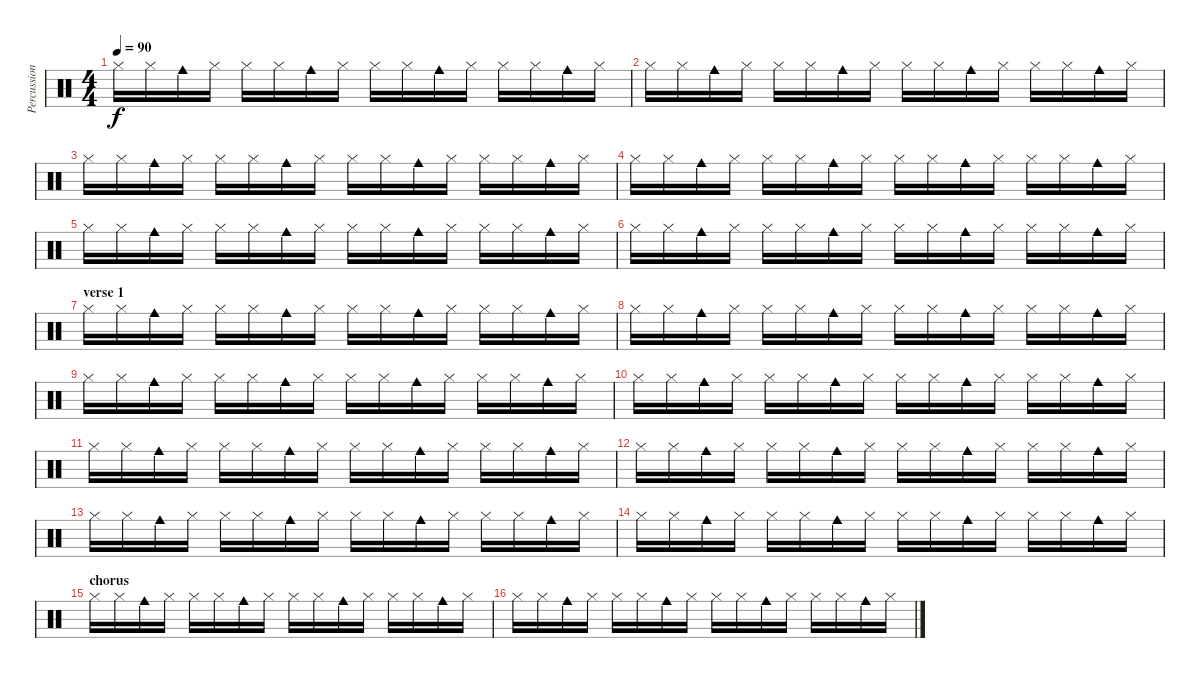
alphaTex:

\track ("Percussion" "Percussion") {instrument percussion}
\staff {score}
\articulation defaults
\ts (4 4)
\tempo 90
\clef neutral
\ks c "Hi-Hat (closed)".16{dy f} "Hi-Hat (closed)".16 "Cowbell medium (hit)".16 "Hi-Hat (closed)".16 "Hi-Hat (closed)".16 "Hi-Hat (closed)".16 "Cowbell medium (hit)".16 "Hi-Hat (closed)".16 "Hi-Hat (closed)".16 "Hi-Hat (closed)".16 "Cowbell medium (hit)".16 "Hi-Hat (closed)".16 "Hi-Hat (closed)".16 "Hi-Hat (closed)".16 "Cowbell medium (hit)".16 "Hi-Hat (closed)".16
|
"Hi-Hat (closed)".16 "Hi-Hat (closed)".16 "Cowbell medium (hit)".16 "Hi-Hat (closed)".16 "Hi-Hat (closed)".16 "Hi-Hat (closed)".16 "Cowbell medium (hit)".16 "Hi-Hat (closed)".16 "Hi-Hat (closed)".16 "Hi-Hat (closed)".16 "Cowbell medium (hit)".16 "Hi-Hat (closed)".16 "Hi-Hat (closed)".16 "Hi-Hat (closed)".16 "Cowbell medium (hit)".16 "Hi-Hat (closed)".16 |
"Hi-Hat (closed)".16 "Hi-Hat (closed)".16 "Cowbell medium (hit)".16 "Hi-Hat (closed)".16 "Hi-Hat (closed)".16 "Hi-Hat (closed)".16 "Cowbell medium (hit)".16 "Hi-Hat (closed)".16 "Hi-Hat (closed)".16 "Hi-Hat (closed)".16 "Cowbell medium (hit)".16 "Hi-Hat (closed)".16 "Hi-Hat (closed)".16 "Hi-Hat (closed)".16 "Cowbell medium (hit)".16 "Hi-Hat (closed)".16 |
"Hi-Hat (closed)".16 "Hi-Hat (closed)".16 "Cowbell medium (hit)".16 "Hi-Hat (closed)".16 "Hi-Hat (closed)".16 "Hi-Hat (closed)".16 "Cowbell medium (hit)".16 "Hi-Hat (closed)".16 "Hi-Hat (closed)".16 "Hi-Hat (closed)".16 "Cowbell medium (hit)".16 "Hi-Hat (closed)".16 "Hi-Hat (closed)".16 "Hi-Hat (closed)".16 "Cowbell medium (hit)".16 "Hi-Hat (closed)".16 |
"Hi-Hat (closed)".16 "Hi-Hat (closed)".16 "Cowbell medium (hit)".16 "Hi-Hat (closed)".16 "Hi-Hat (closed)".16 "Hi-Hat (closed)".16 "Cowbell medium (hit)".16 "Hi-Hat (closed)".16 "Hi-Hat (closed)".16 "Hi-Hat (closed)".16 "Cowbell medium (hit)".16 "Hi-Hat (closed)".16 "Hi-Hat (closed)".16 "Hi-Hat (closed)".16 "Cowbell medium (hit)".16 "Hi-Hat (closed)".16 |
"Hi-Hat (closed)".16 "Hi-Hat (closed)".16 "Cowbell medium (hit)".16 "Hi-Hat (closed)".16 "Hi-Hat (closed)".16 "Hi-Hat (closed)".16 "Cowbell medium (hit)".16 "Hi-Hat (closed)".16 "Hi-Hat (closed)".16 "Hi-Hat (closed)".16 "Cowbell medium (hit)".16 "Hi-Hat (closed)".16 "Hi-Hat (closed)".16 "Hi-Hat (closed)".16 "Cowbell medium (hit)".16 "Hi-Hat (closed)".16 |
\section ("" "verse 1")
"Hi-Hat (closed)".16 "Hi-Hat (closed)".16 "Cowbell medium (hit)".16 "Hi-Hat (closed)".16 "Hi-Hat (closed)".16 "Hi-Hat (closed)".16 "Cowbell medium (hit)".16 "Hi-Hat (closed)".16 "Hi-Hat (closed)".16 "Hi-Hat (closed)".16 "Cowbell medium (hit)".16 "Hi-Hat (closed)".16 "Hi-Hat (closed)".16 "Hi-Hat (closed)".16 "Cowbell medium (hit)".16 "Hi-Hat (closed)".16 |
"Hi-Hat (closed)".16 "Hi-Hat (closed)".16 "Cowbell medium (hit)".16 "Hi-Hat (closed)".16 "Hi-Hat (closed)".16 "Hi-Hat (closed)".16 "Cowbell medium (hit)".16 "Hi-Hat (closed)".16 "Hi-Hat (closed)".16 "Hi-Hat (closed)".16 "Cowbell medium (hit)".16 "Hi-Hat (closed)".16 "Hi-Hat (closed)".16 "Hi-Hat (closed)".16 "Cowbell medium (hit)".16 "Hi-Hat (closed)".16 |
"Hi-Hat (closed)".16 "Hi-Hat (closed)".16 "Cowbell medium (hit)".16 "Hi-Hat (closed)".16 "Hi-Hat (closed)".16 "Hi-Hat (closed)".16 "Cowbell medium (hit)".16 "Hi-Hat (closed)".16 "Hi-Hat (closed)".16 "Hi-Hat (closed)".16 "Cowbell medium (hit)".16 "Hi-Hat (closed)".16 "Hi-Hat (closed)".16 "Hi-Hat (closed)".16 "Cowbell medium (hit)".16 "Hi-Hat (closed)".16 |
"Hi-Hat (closed)".16 "Hi-Hat (closed)".16 "Cowbell medium (hit)".16 "Hi-Hat (closed)".16 "Hi-Hat (closed)".16 "Hi-Hat (closed)".16 "Cowbell medium (hit)".16 "Hi-Hat (closed)".16 "Hi-Hat (closed)".16 "Hi-Hat (closed)".16 "Cowbell medium (hit)".16 "Hi-Hat (closed)".16 "Hi-Hat (closed)".16 "Hi-Hat (closed)".16 "Cowbell medium (hit)".16 "Hi-Hat (closed)".16 |
"Hi-Hat (closed)".16 "Hi-Hat (closed)".16 "Cowbell medium (hit)".16 "Hi-Hat (closed)".16 "Hi-Hat (closed)".16 "Hi-Hat (closed)".16 "Cowbell medium (hit)".16 "Hi-Hat (closed)".16 "Hi-Hat (closed)".16 "Hi-Hat (closed)".16 "Cowbell medium (hit)".16 "Hi-Hat (closed)".16 "Hi-Hat (closed)".16 "Hi-Hat (closed)".16 "Cowbell medium (hit)".16 "Hi-Hat (closed)".16 |
"Hi-Hat (closed)".16 "Hi-Hat (closed)".16 "Cowbell medium (hit)".16 "Hi-Hat (closed)".16 "Hi-Hat (closed)".16 "Hi-Hat (closed)".16 "Cowbell medium (hit)".16 "Hi-Hat (closed)".16 "Hi-Hat (closed)".16 "Hi-Hat (closed)".16 "Cowbell medium (hit)".16 "Hi-Hat (closed)".16 "Hi-Hat (closed)".16 "Hi-Hat (closed)".16 "Cowbell medium (hit)".16 "Hi-Hat (closed)".16 |
"Hi-Hat (closed)".16 "Hi-Hat (closed)".16 "Cowbell medium (hit)".16 "Hi-Hat (closed)".16 "Hi-Hat (closed)".16 "Hi-Hat (closed)".16 "Cowbell medium (hit)".16 "Hi-Hat (closed)".16 "Hi-Hat (closed)".16 "Hi-Hat (closed)".16 "Cowbell medium (hit)".16 "Hi-Hat (closed)".16 "Hi-Hat (closed)".16 "Hi-Hat (closed)".16 "Cowbell medium (hit)".16 "Hi-Hat (closed)".16 |
"Hi-Hat (closed)".16 "Hi-Hat (closed)".16 "Cowbell medium (hit)".16 "Hi-Hat (closed)".16 "Hi-Hat (closed)".16 "Hi-Hat (closed)".16 "Cowbell medium (hit)".16 "Hi-Hat (closed)".16 "Hi-Hat (closed)".16 "Hi-Hat (closed)".16 "Cowbell medium (hit)".16 "Hi-Hat (closed)".16 "Hi-Hat (closed)".16 "Hi-Hat (closed)".16 "Cowbell medium (hit)".16 "Hi-Hat (closed)".16 |
\section ("" "chorus")
"Hi-Hat (closed)".16 "Hi-Hat (closed)".16 "Cowbell medium (hit)".16 "Hi-Hat (closed)".16 "Hi-Hat (closed)".16 "Hi-Hat (closed)".16 "Cowbell medium (hit)".16 "Hi-Hat (closed)".16 "Hi-Hat (closed)".16 "Hi-Hat (closed)".16 "Cowbell medium (hit)".16 "Hi-Hat (closed)".16 "Hi-Hat (closed)".16 "Hi-Hat (closed)".16 "Cowbell medium (hit)".16 "Hi-Hat (closed)".16 |
"Hi-Hat (closed)".16 "Hi-Hat (closed)".16 "Cowbell medium (hit)".16 "Hi-Hat (closed)".16 "Hi-Hat (closed)".16 "Hi-Hat (closed)".16 "Cowbell medium (hit)".16 "Hi-Hat (closed)".16 "Hi-Hat (closed)".16 "Hi-Hat (closed)".16 "Cowbell medium (hit)".16 "Hi-Hat (closed)".16 "Hi-Hat (closed)".16 "Hi-Hat (closed)".16 "Cowbell medium (hit)".16 "Hi-Hat (closed)".16
